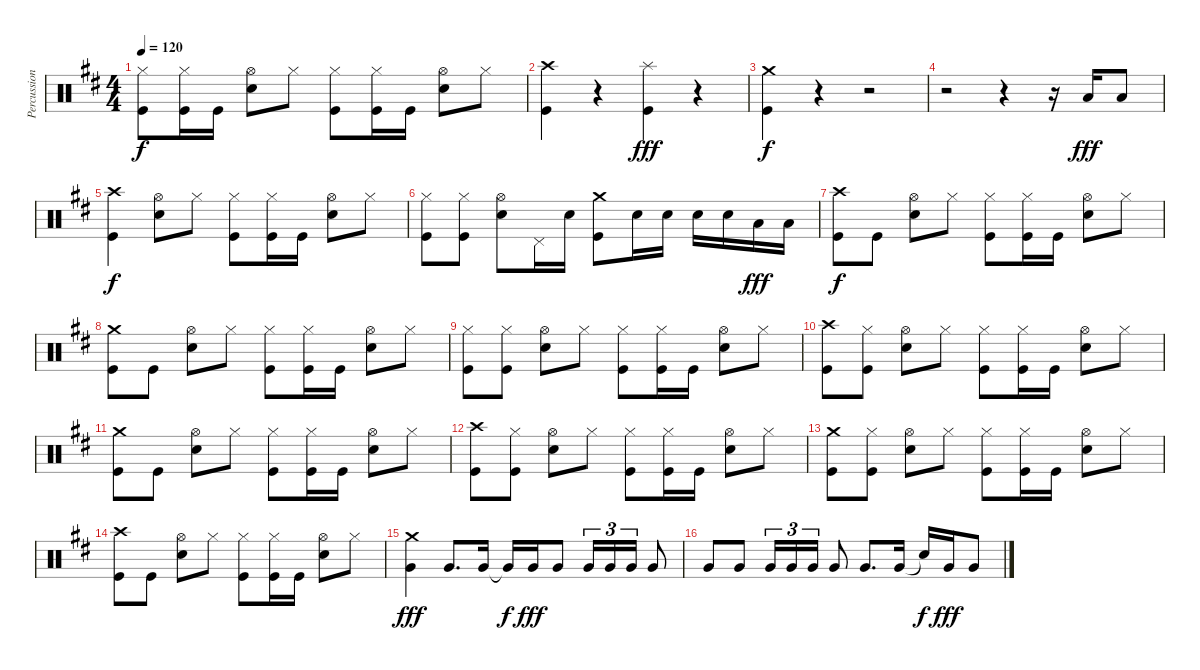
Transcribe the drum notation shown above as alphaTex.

\track ("Percussion" "Percussion") {instrument percussion}
\staff {score}
\articulation defaults
\ts (4 4)
\tempo 120
\clef neutral
\ks d
("Hi-Hat (closed)" "Kick (hit)").8{dy f} ("Hi-Hat (closed)" "Kick (hit)").16 "Kick (hit)".16 ("Hi-Hat (open)" "Snare (hit) 2").8 "Hi-Hat (closed)".8 ("Hi-Hat (closed)" "Kick (hit)").8 ("Hi-Hat (closed)" "Kick (hit)").16 "Kick (hit)".16 ("Hi-Hat (open)" "Snare (hit) 2").8 "Hi-Hat (closed)".8 |
("Crash high (hit)" "Kick (hit)").4 r.4 ("Splash (hit)" "Kick (hit)").4{dy fff} r.4 |
("Crash medium (hit)" "Kick (hit)").4{dy f} r.4 r.2 |
r.2 r.4 r.16 "Low Tom (hit)".16{dy fff} "Low Tom (hit)".8 |
("Crash high (hit)" "Kick (hit)").4{dy f} ("Hi-Hat (open)" "Snare (hit) 2").8 "Hi-Hat (closed)".8 ("Hi-Hat (closed)" "Kick (hit)").8 ("Hi-Hat (closed)" "Kick (hit)").16 "Kick (hit)".16 ("Hi-Hat (open)" "Snare (hit) 2").8 "Hi-Hat (closed)".8 |
("Hi-Hat (closed)" "Kick (hit)").8 ("Hi-Hat (closed)" "Kick (hit)").8 ("Hi-Hat (open)" "Snare (hit) 2").8 "Pedal Hi-Hat (hit)".16 "Snare (hit) 2".16 ("Crash medium (hit)" "Kick (hit)").8 "Snare (hit) 2".16 "Snare (hit) 2".16 "Snare (hit) 2".16 "Snare (hit) 2".16 "Low Tom (hit)".16{dy fff} "Low Tom (hit)".16 |
("Crash high (hit)" "Kick (hit)").8{dy f} "Kick (hit)".8 ("Hi-Hat (open)" "Snare (hit) 2").8 "Hi-Hat (closed)".8 ("Hi-Hat (closed)" "Kick (hit)").8 ("Hi-Hat (closed)" "Kick (hit)").16 "Kick (hit)".16 ("Hi-Hat (open)" "Snare (hit) 2").8 "Hi-Hat (closed)".8 |
("Crash medium (hit)" "Kick (hit)").8 "Kick (hit)".8 ("Hi-Hat (open)" "Snare (hit) 2").8 "Hi-Hat (closed)".8 ("Hi-Hat (closed)" "Kick (hit)").8 ("Hi-Hat (closed)" "Kick (hit)").16 "Kick (hit)".16 ("Hi-Hat (open)" "Snare (hit) 2").8 "Hi-Hat (closed)".8 |
("Hi-Hat (closed)" "Kick (hit)").8 ("Hi-Hat (closed)" "Kick (hit)").8 ("Hi-Hat (open)" "Snare (hit) 2").8 "Hi-Hat (closed)".8 ("Hi-Hat (closed)" "Kick (hit)").8 ("Hi-Hat (closed)" "Kick (hit)").16 "Kick (hit)".16 ("Hi-Hat (open)" "Snare (hit) 2").8 "Hi-Hat (closed)".8 |
("Crash high (hit)" "Kick (hit)").8 ("Hi-Hat (closed)" "Kick (hit)").8 ("Hi-Hat (open)" "Snare (hit) 2").8 "Hi-Hat (closed)".8 ("Hi-Hat (closed)" "Kick (hit)").8 ("Hi-Hat (closed)" "Kick (hit)").16 "Kick (hit)".16 ("Hi-Hat (open)" "Snare (hit) 2").8 "Hi-Hat (closed)".8 |
("Crash medium (hit)" "Kick (hit)").8 "Kick (hit)".8 ("Hi-Hat (open)" "Snare (hit) 2").8 "Hi-Hat (closed)".8 ("Hi-Hat (closed)" "Kick (hit)").8 ("Hi-Hat (closed)" "Kick (hit)").16 "Kick (hit)".16 ("Hi-Hat (open)" "Snare (hit) 2").8 "Hi-Hat (closed)".8 |
("Crash high (hit)" "Kick (hit)").8 ("Hi-Hat (closed)" "Kick (hit)").8 ("Hi-Hat (open)" "Snare (hit) 2").8 "Hi-Hat (closed)".8 ("Hi-Hat (closed)" "Kick (hit)").8 ("Hi-Hat (closed)" "Kick (hit)").16 "Kick (hit)".16 ("Hi-Hat (open)" "Snare (hit) 2").8 "Hi-Hat (closed)".8 |
("Crash medium (hit)" "Kick (hit)").8 ("Hi-Hat (closed)" "Kick (hit)").8 ("Hi-Hat (open)" "Snare (hit) 2").8 "Hi-Hat (closed)".8 ("Hi-Hat (closed)" "Kick (hit)").8 ("Hi-Hat (closed)" "Kick (hit)").16 "Kick (hit)".16 ("Hi-Hat (open)" "Snare (hit) 2").8 "Hi-Hat (closed)".8 |
("Crash high (hit)" "Kick (hit)").8 "Kick (hit)".8 ("Hi-Hat (open)" "Snare (hit) 2").8 "Hi-Hat (closed)".8 ("Hi-Hat (closed)" "Kick (hit)").8 ("Hi-Hat (closed)" "Kick (hit)").16 "Kick (hit)".16 ("Hi-Hat (open)" "Snare (hit) 2").8 "Hi-Hat (closed)".8 |
("Crash medium (hit)" "Very Low Tom (hit)").4{dy fff volume 2} "Very Low Tom (hit)".8{d} "Very Low Tom (hit)".16 "Very Low Tom (hit)"{t}.16{dy f} "Very Low Tom (hit)".16{dy fff} "Very Low Tom (hit)".8 "Very Low Tom (hit)".16{tu (3 2)} "Very Low Tom (hit)".16{tu (3 2)} "Very Low Tom (hit)".16{tu (3 2)} "Very Low Tom (hit)".8 |
"Very Low Tom (hit)".8 "Very Low Tom (hit)".8 "Very Low Tom (hit)".16{tu (3 2)} "Very Low Tom (hit)".16{tu (3 2)} "Very Low Tom (hit)".16{tu (3 2)} "Very Low Tom (hit)".8 "Very Low Tom (hit)".8{d} "Very Low Tom (hit)".16 "Snare (hit)"{t}.16{dy f} "Very Low Tom (hit)".16{dy fff} "Very Low Tom (hit)".8
